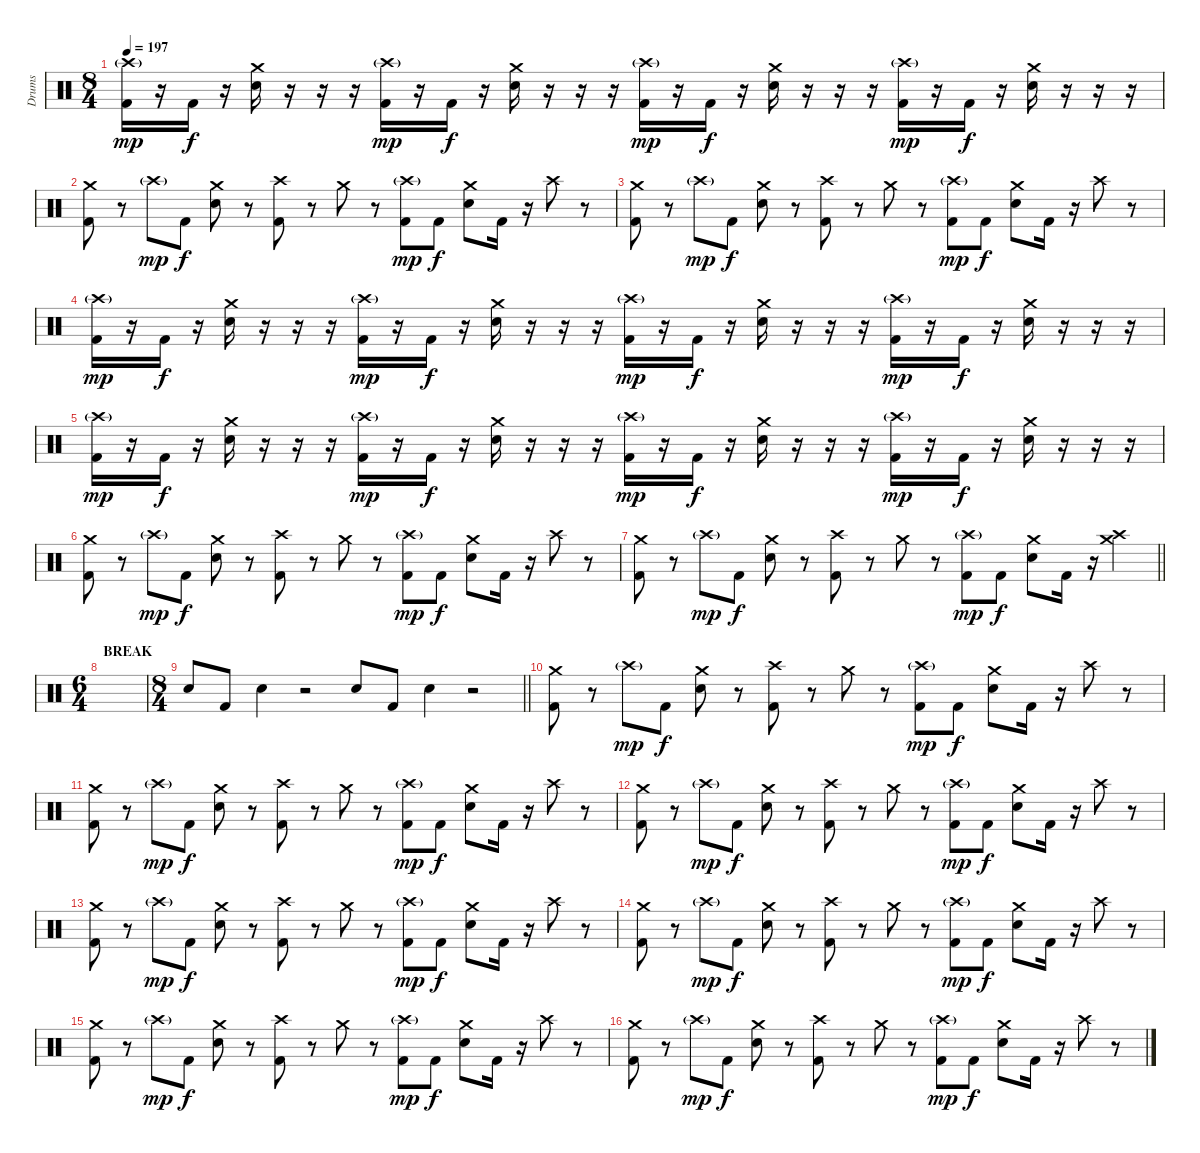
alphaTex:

\track ("Drums" "Drums") {instrument percussion}
\staff {score}
\articulation defaults
\ts (8 4)
\tempo 197
\clef neutral
\ks c
("Crash high (hit)"{g} "Kick (hit) 2").16{dy mp} r.16 "Kick (hit) 2".16{dy f} r.16 ("Crash medium (hit)" "Electric Snare (hit)").16 r.16 r.16 r.16 ("Crash high (hit)"{g} "Kick (hit) 2").16{dy mp} r.16 "Kick (hit) 2".16{dy f} r.16 ("Crash medium (hit)" "Electric Snare (hit)").16 r.16 r.16 r.16 ("Crash high (hit)"{g} "Kick (hit) 2").16{dy mp} r.16 "Kick (hit) 2".16{dy f} r.16 ("Crash medium (hit)" "Electric Snare (hit)").16 r.16 r.16 r.16 ("Crash high (hit)"{g} "Kick (hit) 2").16{dy mp} r.16 "Kick (hit) 2".16{dy f} r.16 ("Crash medium (hit)" "Electric Snare (hit)").16 r.16 r.16 r.16 |
("Crash medium (hit)" "Kick (hit) 2").8 r.8 "Crash high (hit)"{g}.8{dy mp} "Kick (hit) 2".8{dy f} ("Crash medium (hit)" "Electric Snare (hit)").8 r.8 ("Crash high (hit)" "Kick (hit) 2").8 r.8 "Crash medium (hit)".8 r.8 ("Crash high (hit)"{g} "Kick (hit) 2").8{dy mp} "Kick (hit) 2".8{dy f} ("Crash medium (hit)" "Electric Snare (hit)").8 "Kick (hit) 2".16 r.16 "Crash high (hit)".8 r.8 |
("Crash medium (hit)" "Kick (hit) 2").8 r.8 "Crash high (hit)"{g}.8{dy mp} "Kick (hit) 2".8{dy f} ("Crash medium (hit)" "Electric Snare (hit)").8 r.8 ("Crash high (hit)" "Kick (hit) 2").8 r.8 "Crash medium (hit)".8 r.8 ("Crash high (hit)"{g} "Kick (hit) 2").8{dy mp} "Kick (hit) 2".8{dy f} ("Crash medium (hit)" "Electric Snare (hit)").8 "Kick (hit) 2".16 r.16 "Crash high (hit)".8 r.8 |
("Crash high (hit)"{g} "Kick (hit) 2").16{dy mp} r.16 "Kick (hit) 2".16{dy f} r.16 ("Crash medium (hit)" "Electric Snare (hit)").16 r.16 r.16 r.16 ("Crash high (hit)"{g} "Kick (hit) 2").16{dy mp} r.16 "Kick (hit) 2".16{dy f} r.16 ("Crash medium (hit)" "Electric Snare (hit)").16 r.16 r.16 r.16 ("Crash high (hit)"{g} "Kick (hit) 2").16{dy mp} r.16 "Kick (hit) 2".16{dy f} r.16 ("Crash medium (hit)" "Electric Snare (hit)").16 r.16 r.16 r.16 ("Crash high (hit)"{g} "Kick (hit) 2").16{dy mp} r.16 "Kick (hit) 2".16{dy f} r.16 ("Crash medium (hit)" "Electric Snare (hit)").16 r.16 r.16 r.16 |
("Crash high (hit)"{g} "Kick (hit) 2").16{dy mp} r.16 "Kick (hit) 2".16{dy f} r.16 ("Crash medium (hit)" "Electric Snare (hit)").16 r.16 r.16 r.16 ("Crash high (hit)"{g} "Kick (hit) 2").16{dy mp} r.16 "Kick (hit) 2".16{dy f} r.16 ("Crash medium (hit)" "Electric Snare (hit)").16 r.16 r.16 r.16 ("Crash high (hit)"{g} "Kick (hit) 2").16{dy mp} r.16 "Kick (hit) 2".16{dy f} r.16 ("Crash medium (hit)" "Electric Snare (hit)").16 r.16 r.16 r.16 ("Crash high (hit)"{g} "Kick (hit) 2").16{dy mp} r.16 "Kick (hit) 2".16{dy f} r.16 ("Crash medium (hit)" "Electric Snare (hit)").16 r.16 r.16 r.16 |
("Crash medium (hit)" "Kick (hit) 2").8 r.8 "Crash high (hit)"{g}.8{dy mp} "Kick (hit) 2".8{dy f} ("Crash medium (hit)" "Electric Snare (hit)").8 r.8 ("Crash high (hit)" "Kick (hit) 2").8 r.8 "Crash medium (hit)".8 r.8 ("Crash high (hit)"{g} "Kick (hit) 2").8{dy mp} "Kick (hit) 2".8{dy f} ("Crash medium (hit)" "Electric Snare (hit)").8 "Kick (hit) 2".16 r.16 "Crash high (hit)".8 r.8 |
\barLineRight lightlight
("Crash medium (hit)" "Kick (hit) 2").8 r.8 "Crash high (hit)"{g}.8{dy mp} "Kick (hit) 2".8{dy f} ("Crash medium (hit)" "Electric Snare (hit)").8 r.8 ("Crash high (hit)" "Kick (hit) 2").8 r.8 "Crash medium (hit)".8 r.8 ("Crash high (hit)"{g} "Kick (hit) 2").8{dy mp} "Kick (hit) 2".8{dy f} ("Crash medium (hit)" "Electric Snare (hit)").8 "Kick (hit) 2".16 r.16 ("Crash high (hit)" "Crash medium (hit)").4 |
\ts (6 4)
\section ("" "BREAK")
|
\ts (8 4)
\barLineRight lightlight "Electric Snare (hit)".8 "Kick (hit) 2".8 "Electric Snare (hit)".4
r.2 "Electric Snare (hit)".8 "Kick (hit) 2".8 "Electric Snare (hit)".4 r.2 |
("Crash medium (hit)" "Kick (hit) 2").8 r.8 "Crash high (hit)"{g}.8{dy mp} "Kick (hit) 2".8{dy f} ("Crash medium (hit)" "Electric Snare (hit)").8 r.8 ("Crash high (hit)" "Kick (hit) 2").8 r.8 "Crash medium (hit)".8 r.8 ("Crash high (hit)"{g} "Kick (hit) 2").8{dy mp} "Kick (hit) 2".8{dy f} ("Crash medium (hit)" "Electric Snare (hit)").8 "Kick (hit) 2".16 r.16 "Crash high (hit)".8 r.8 |
("Crash medium (hit)" "Kick (hit) 2").8 r.8 "Crash high (hit)"{g}.8{dy mp} "Kick (hit) 2".8{dy f} ("Crash medium (hit)" "Electric Snare (hit)").8 r.8 ("Crash high (hit)" "Kick (hit) 2").8 r.8 "Crash medium (hit)".8 r.8 ("Crash high (hit)"{g} "Kick (hit) 2").8{dy mp} "Kick (hit) 2".8{dy f} ("Crash medium (hit)" "Electric Snare (hit)").8 "Kick (hit) 2".16 r.16 "Crash high (hit)".8 r.8 |
("Crash medium (hit)" "Kick (hit) 2").8 r.8 "Crash high (hit)"{g}.8{dy mp} "Kick (hit) 2".8{dy f} ("Crash medium (hit)" "Electric Snare (hit)").8 r.8 ("Crash high (hit)" "Kick (hit) 2").8 r.8 "Crash medium (hit)".8 r.8 ("Crash high (hit)"{g} "Kick (hit) 2").8{dy mp} "Kick (hit) 2".8{dy f} ("Crash medium (hit)" "Electric Snare (hit)").8 "Kick (hit) 2".16 r.16 "Crash high (hit)".8 r.8 |
("Crash medium (hit)" "Kick (hit) 2").8 r.8 "Crash high (hit)"{g}.8{dy mp} "Kick (hit) 2".8{dy f} ("Crash medium (hit)" "Electric Snare (hit)").8 r.8 ("Crash high (hit)" "Kick (hit) 2").8 r.8 "Crash medium (hit)".8 r.8 ("Crash high (hit)"{g} "Kick (hit) 2").8{dy mp} "Kick (hit) 2".8{dy f} ("Crash medium (hit)" "Electric Snare (hit)").8 "Kick (hit) 2".16 r.16 "Crash high (hit)".8 r.8 |
("Crash medium (hit)" "Kick (hit) 2").8 r.8 "Crash high (hit)"{g}.8{dy mp} "Kick (hit) 2".8{dy f} ("Crash medium (hit)" "Electric Snare (hit)").8 r.8 ("Crash high (hit)" "Kick (hit) 2").8 r.8 "Crash medium (hit)".8 r.8 ("Crash high (hit)"{g} "Kick (hit) 2").8{dy mp} "Kick (hit) 2".8{dy f} ("Crash medium (hit)" "Electric Snare (hit)").8 "Kick (hit) 2".16 r.16 "Crash high (hit)".8 r.8 |
("Crash medium (hit)" "Kick (hit) 2").8 r.8 "Crash high (hit)"{g}.8{dy mp} "Kick (hit) 2".8{dy f} ("Crash medium (hit)" "Electric Snare (hit)").8 r.8 ("Crash high (hit)" "Kick (hit) 2").8 r.8 "Crash medium (hit)".8 r.8 ("Crash high (hit)"{g} "Kick (hit) 2").8{dy mp} "Kick (hit) 2".8{dy f} ("Crash medium (hit)" "Electric Snare (hit)").8 "Kick (hit) 2".16 r.16 "Crash high (hit)".8 r.8 |
("Crash medium (hit)" "Kick (hit) 2").8 r.8 "Crash high (hit)"{g}.8{dy mp} "Kick (hit) 2".8{dy f} ("Crash medium (hit)" "Electric Snare (hit)").8 r.8 ("Crash high (hit)" "Kick (hit) 2").8 r.8 "Crash medium (hit)".8 r.8 ("Crash high (hit)"{g} "Kick (hit) 2").8{dy mp} "Kick (hit) 2".8{dy f} ("Crash medium (hit)" "Electric Snare (hit)").8 "Kick (hit) 2".16 r.16 "Crash high (hit)".8 r.8
